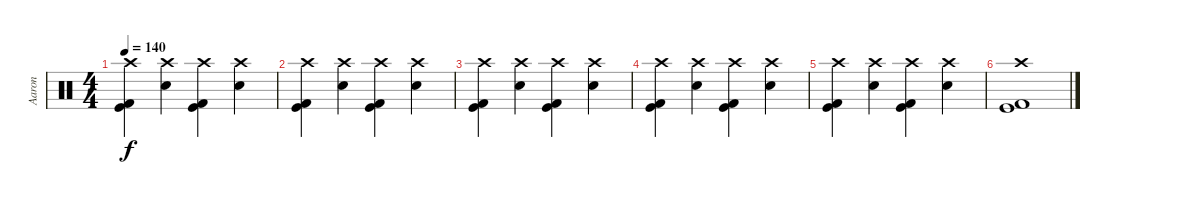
\track ("Aaron" "Aaron") {instrument percussion}
\staff {score}
\articulation defaults
\ts (4 4)
\tempo 140
\clef neutral
\ks c
("Crash high (hit)" "Kick (hit) 2" "Kick (hit)").4{dy f} ("Crash high (hit)" "Snare (hit) 2").4 ("Crash high (hit)" "Kick (hit) 2" "Kick (hit)").4 ("Crash high (hit)" "Snare (hit) 2").4 |
("Crash high (hit)" "Kick (hit) 2" "Kick (hit)").4 ("Crash high (hit)" "Snare (hit) 2").4 ("Crash high (hit)" "Kick (hit) 2" "Kick (hit)").4 ("Crash high (hit)" "Snare (hit) 2").4 |
("Crash high (hit)" "Kick (hit) 2" "Kick (hit)").4 ("Crash high (hit)" "Snare (hit) 2").4 ("Crash high (hit)" "Kick (hit) 2" "Kick (hit)").4 ("Crash high (hit)" "Snare (hit) 2").4 |
("Crash high (hit)" "Kick (hit) 2" "Kick (hit)").4 ("Crash high (hit)" "Snare (hit) 2").4 ("Crash high (hit)" "Kick (hit) 2" "Kick (hit)").4 ("Crash high (hit)" "Snare (hit) 2").4 |
("Crash high (hit)" "Kick (hit) 2" "Kick (hit)").4 ("Crash high (hit)" "Snare (hit) 2").4 ("Crash high (hit)" "Kick (hit) 2" "Kick (hit)").4 ("Crash high (hit)" "Snare (hit) 2").4 |
("Crash high (hit)" "Kick (hit) 2" "Kick (hit)").1
